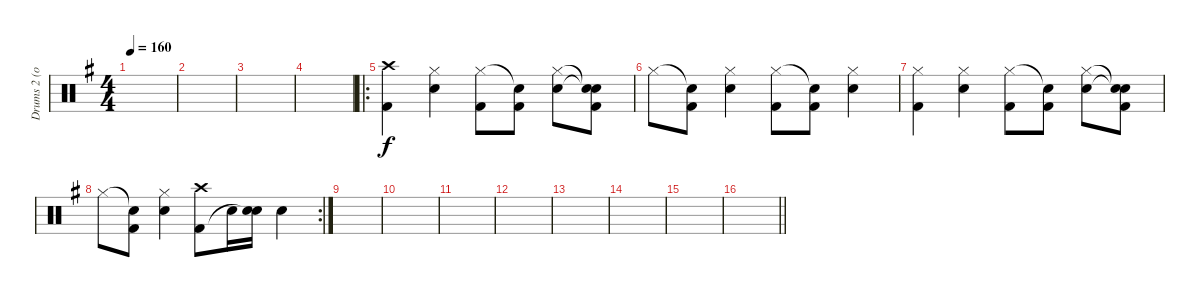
\track ("Drums 2 (optional)" "Drums 2 (o") {instrument percussion}
\staff {score}
\articulation defaults
\ts (4 4)
\tempo 160
\clef neutral
\ks g
|
|
|
|
\ro
("Crash high (hit)" "Kick (hit) 2").4 ("Hi-Hat (closed)" "Snare (hit) 2").4 ("Hi-Hat (closed)" "Kick (hit) 2").8 ("Snare (hit)"{t} "Kick (hit) 2").8 ("Hi-Hat (closed)" "Snare (hit) 2").8 ("Snare (hit)"{t} "Snare (hit)"{t} "Kick (hit) 2").8 |
"Hi-Hat (closed)".8 ("Snare (hit)"{t} "Kick (hit) 2").8 ("Hi-Hat (closed)" "Snare (hit) 2").4 ("Hi-Hat (closed)" "Kick (hit) 2").8 ("Snare (hit)"{t} "Kick (hit) 2").8 ("Hi-Hat (closed)" "Snare (hit) 2").4 |
("Hi-Hat (closed)" "Kick (hit) 2").4 ("Hi-Hat (closed)" "Snare (hit) 2").4 ("Hi-Hat (closed)" "Kick (hit) 2").8 ("Snare (hit)"{t} "Kick (hit) 2").8 ("Hi-Hat (closed)" "Snare (hit) 2").8 ("Snare (hit)"{t} "Snare (hit)"{t} "Kick (hit) 2").8 |
\rc 2 "Hi-Hat (closed)".8
("Snare (hit)"{t} "Kick (hit) 2").8 ("Hi-Hat (closed)" "Snare (hit) 2").4 ("Crash high (hit)" "Kick (hit) 2").8 "Snare (hit) 2".16 ("Snare (hit) 2" "Snare (hit)"{t}).16 "Snare (hit) 2".4 |
|
|
|
|
|
|
|
\barLineRight lightlight
